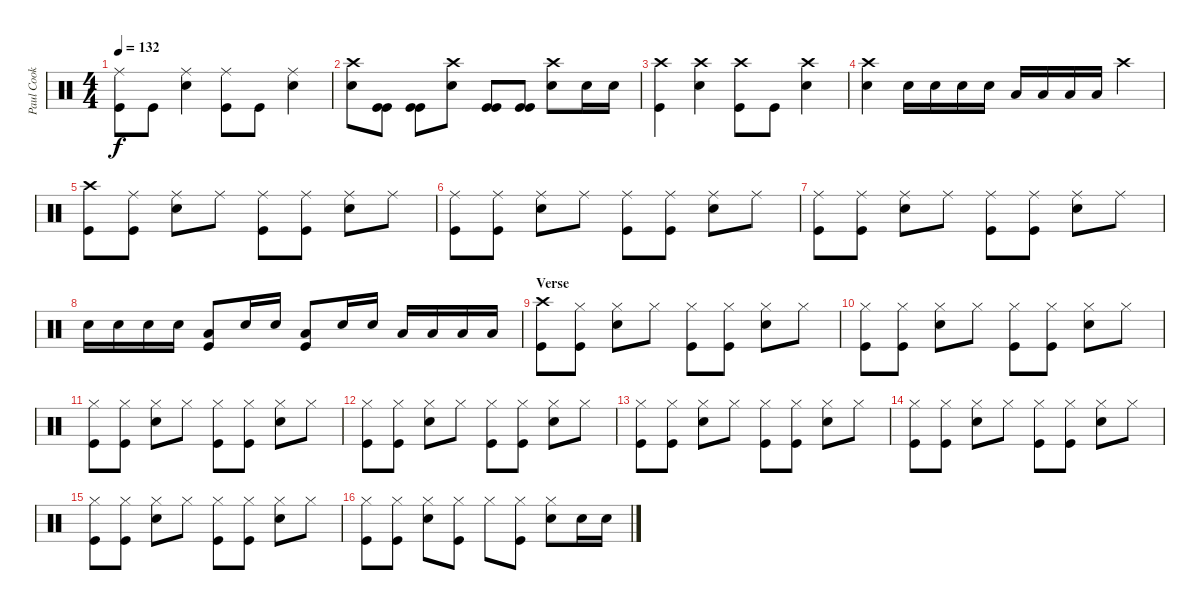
\track ("Paul Cook" "Paul Cook") {instrument percussion}
\staff {score}
\articulation defaults
\ts (4 4)
\tempo 132
\clef neutral
\ks c
("Ride (middle)" "Kick (hit)").8{dy f} "Kick (hit)".8 ("Ride (middle)" "Snare (hit) 2").4 ("Ride (middle)" "Kick (hit)").8 "Kick (hit)".8 ("Ride (middle)" "Snare (hit) 2").4 |
("Crash high (hit)" "Snare (hit) 2").8 ("Kick (hit)" "Kick (hit)").8 ("Kick (hit)" "Kick (hit)").8 ("Crash high (hit)" "Snare (hit) 2").8 ("Kick (hit)" "Kick (hit)").8 ("Kick (hit)" "Kick (hit)").8 ("Crash high (hit)" "Snare (hit) 2").8 "Snare (hit) 2".16 "Snare (hit) 2".16 |
("Crash high (hit)" "Kick (hit)").4 ("Crash high (hit)" "Snare (hit) 2").4 ("Crash high (hit)" "Kick (hit)").8 "Kick (hit)".8 ("Crash high (hit)" "Snare (hit) 2").4 |
("Crash high (hit)" "Snare (hit) 2").4 "Snare (hit) 2".16 "Snare (hit) 2".16 "Snare (hit) 2".16 "Snare (hit) 2".16 "Low Floor Tom (hit)".16 "Low Floor Tom (hit)".16 "Low Floor Tom (hit)".16 "Low Floor Tom (hit)".16 "Crash high (hit)".4 |
("Crash high (hit)" "Kick (hit)").8 ("Ride (middle)" "Kick (hit)").8 ("Ride (middle)" "Snare (hit) 2").8 "Ride (middle)".8 ("Ride (middle)" "Kick (hit)").8 ("Ride (middle)" "Kick (hit)").8 ("Ride (middle)" "Snare (hit) 2").8 "Ride (middle)".8 |
("Ride (middle)" "Kick (hit)").8 ("Ride (middle)" "Kick (hit)").8 ("Ride (middle)" "Snare (hit) 2").8 "Ride (middle)".8 ("Ride (middle)" "Kick (hit)").8 ("Ride (middle)" "Kick (hit)").8 ("Ride (middle)" "Snare (hit) 2").8 "Ride (middle)".8 |
("Ride (middle)" "Kick (hit)").8 ("Ride (middle)" "Kick (hit)").8 ("Ride (middle)" "Snare (hit) 2").8 "Ride (middle)".8 ("Ride (middle)" "Kick (hit)").8 ("Ride (middle)" "Kick (hit)").8 ("Ride (middle)" "Snare (hit) 2").8 "Ride (middle)".8 |
"Snare (hit) 2".16 "Snare (hit) 2".16 "Snare (hit) 2".16 "Snare (hit) 2".16 ("Low Tom (hit)" "Kick (hit)").8 "Snare (hit) 2".16 "Snare (hit) 2".16 ("Low Tom (hit)" "Kick (hit)").8 "Snare (hit) 2".16 "Snare (hit) 2".16 "Low Tom (hit)".16 "Low Tom (hit)".16 "Low Tom (hit)".16 "Low Tom (hit)".16 |
\section ("" "Verse")
("Crash high (hit)" "Kick (hit)").8 ("Hi-Hat (closed)" "Kick (hit)").8 ("Hi-Hat (closed)" "Snare (hit) 2").8 "Hi-Hat (closed)".8 ("Hi-Hat (closed)" "Kick (hit)").8 ("Hi-Hat (closed)" "Kick (hit)").8 ("Hi-Hat (closed)" "Snare (hit) 2").8 "Hi-Hat (closed)".8 |
("Hi-Hat (closed)" "Kick (hit)").8 ("Hi-Hat (closed)" "Kick (hit)").8 ("Hi-Hat (closed)" "Snare (hit) 2").8 "Hi-Hat (closed)".8 ("Hi-Hat (closed)" "Kick (hit)").8 ("Hi-Hat (closed)" "Kick (hit)").8 ("Hi-Hat (closed)" "Snare (hit) 2").8 "Hi-Hat (closed)".8 |
("Hi-Hat (closed)" "Kick (hit)").8 ("Hi-Hat (closed)" "Kick (hit)").8 ("Hi-Hat (closed)" "Snare (hit) 2").8 "Hi-Hat (closed)".8 ("Hi-Hat (closed)" "Kick (hit)").8 ("Hi-Hat (closed)" "Kick (hit)").8 ("Hi-Hat (closed)" "Snare (hit) 2").8 "Hi-Hat (closed)".8 |
("Hi-Hat (closed)" "Kick (hit)").8 ("Hi-Hat (closed)" "Kick (hit)").8 ("Hi-Hat (closed)" "Snare (hit) 2").8 "Hi-Hat (closed)".8 ("Hi-Hat (closed)" "Kick (hit)").8 ("Hi-Hat (closed)" "Kick (hit)").8 ("Hi-Hat (closed)" "Snare (hit) 2").8 "Hi-Hat (closed)".8 |
("Hi-Hat (closed)" "Kick (hit)").8 ("Hi-Hat (closed)" "Kick (hit)").8 ("Hi-Hat (closed)" "Snare (hit) 2").8 "Hi-Hat (closed)".8 ("Hi-Hat (closed)" "Kick (hit)").8 ("Hi-Hat (closed)" "Kick (hit)").8 ("Hi-Hat (closed)" "Snare (hit) 2").8 "Hi-Hat (closed)".8 |
("Hi-Hat (closed)" "Kick (hit)").8 ("Hi-Hat (closed)" "Kick (hit)").8 ("Hi-Hat (closed)" "Snare (hit) 2").8 "Hi-Hat (closed)".8 ("Hi-Hat (closed)" "Kick (hit)").8 ("Hi-Hat (closed)" "Kick (hit)").8 ("Hi-Hat (closed)" "Snare (hit) 2").8 "Hi-Hat (closed)".8 |
("Hi-Hat (closed)" "Kick (hit)").8 ("Hi-Hat (closed)" "Kick (hit)").8 ("Hi-Hat (closed)" "Snare (hit) 2").8 "Hi-Hat (closed)".8 ("Hi-Hat (closed)" "Kick (hit)").8 ("Hi-Hat (closed)" "Kick (hit)").8 ("Hi-Hat (closed)" "Snare (hit) 2").8 "Hi-Hat (closed)".8 |
("Hi-Hat (closed)" "Kick (hit)").8 ("Hi-Hat (closed)" "Kick (hit)").8 ("Hi-Hat (closed)" "Snare (hit) 2").8 ("Hi-Hat (closed)" "Kick (hit)").8 "Hi-Hat (closed)".8 ("Hi-Hat (closed)" "Kick (hit)").8 ("Hi-Hat (closed)" "Snare (hit) 2").8 "Snare (hit) 2".16 "Snare (hit) 2".16
